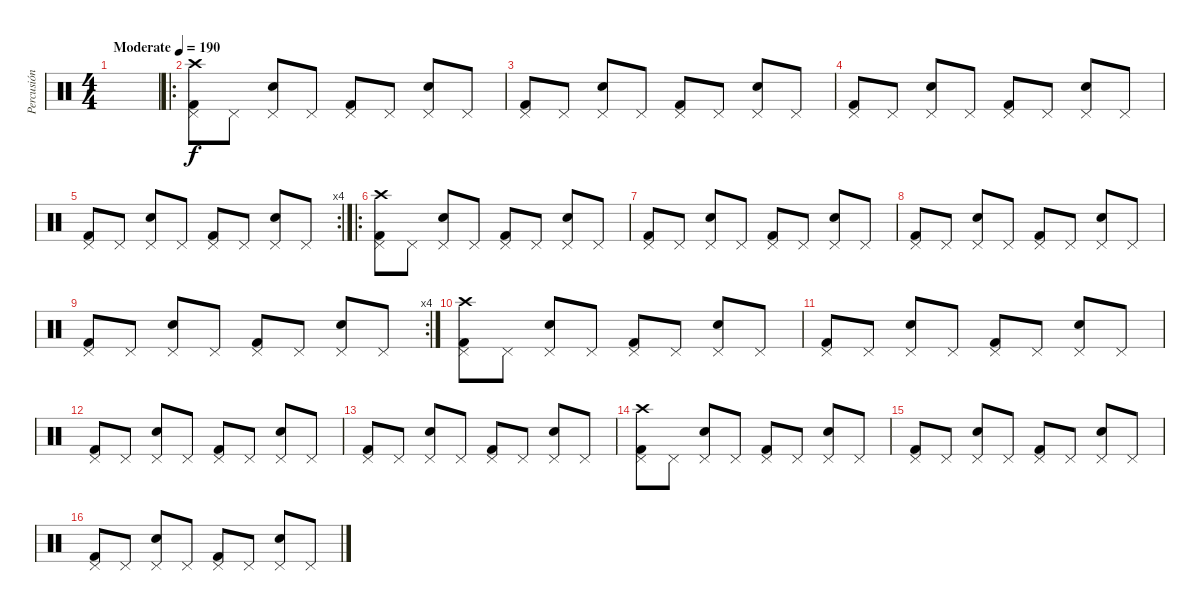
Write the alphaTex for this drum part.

\track ("Percusión" "Percusión") {instrument percussion}
\staff {score}
\articulation defaults
\ts (4 4)
\tempo (190 "Moderate")
\clef neutral
\ks c
|
\ro
("Pedal Hi-Hat (hit)" "Kick (hit) 2" "Crash high (hit)").8 "Pedal Hi-Hat (hit)".8 ("Pedal Hi-Hat (hit)" "Electric Snare (hit)").8 "Pedal Hi-Hat (hit)".8 ("Pedal Hi-Hat (hit)" "Kick (hit) 2").8 "Pedal Hi-Hat (hit)".8 ("Pedal Hi-Hat (hit)" "Electric Snare (hit)").8 "Pedal Hi-Hat (hit)".8 |
("Pedal Hi-Hat (hit)" "Kick (hit) 2").8 "Pedal Hi-Hat (hit)".8 ("Pedal Hi-Hat (hit)" "Electric Snare (hit)").8 "Pedal Hi-Hat (hit)".8 ("Pedal Hi-Hat (hit)" "Kick (hit) 2").8 "Pedal Hi-Hat (hit)".8 ("Pedal Hi-Hat (hit)" "Electric Snare (hit)").8 "Pedal Hi-Hat (hit)".8 |
("Pedal Hi-Hat (hit)" "Kick (hit) 2").8 "Pedal Hi-Hat (hit)".8 ("Pedal Hi-Hat (hit)" "Electric Snare (hit)").8 "Pedal Hi-Hat (hit)".8 ("Pedal Hi-Hat (hit)" "Kick (hit) 2").8 "Pedal Hi-Hat (hit)".8 ("Pedal Hi-Hat (hit)" "Electric Snare (hit)").8 "Pedal Hi-Hat (hit)".8 |
\rc 4
("Pedal Hi-Hat (hit)" "Kick (hit) 2").8 "Pedal Hi-Hat (hit)".8 ("Pedal Hi-Hat (hit)" "Electric Snare (hit)").8 "Pedal Hi-Hat (hit)".8 ("Pedal Hi-Hat (hit)" "Kick (hit) 2").8 "Pedal Hi-Hat (hit)".8 ("Pedal Hi-Hat (hit)" "Electric Snare (hit)").8 "Pedal Hi-Hat (hit)".8 |
\ro
("Pedal Hi-Hat (hit)" "Kick (hit) 2" "Crash high (hit)").8 "Pedal Hi-Hat (hit)".8 ("Pedal Hi-Hat (hit)" "Electric Snare (hit)").8 "Pedal Hi-Hat (hit)".8 ("Pedal Hi-Hat (hit)" "Kick (hit) 2").8 "Pedal Hi-Hat (hit)".8 ("Pedal Hi-Hat (hit)" "Electric Snare (hit)").8 "Pedal Hi-Hat (hit)".8 |
("Pedal Hi-Hat (hit)" "Kick (hit) 2").8 "Pedal Hi-Hat (hit)".8 ("Pedal Hi-Hat (hit)" "Electric Snare (hit)").8 "Pedal Hi-Hat (hit)".8 ("Pedal Hi-Hat (hit)" "Kick (hit) 2").8 "Pedal Hi-Hat (hit)".8 ("Pedal Hi-Hat (hit)" "Electric Snare (hit)").8 "Pedal Hi-Hat (hit)".8 |
("Pedal Hi-Hat (hit)" "Kick (hit) 2").8 "Pedal Hi-Hat (hit)".8 ("Pedal Hi-Hat (hit)" "Electric Snare (hit)").8 "Pedal Hi-Hat (hit)".8 ("Pedal Hi-Hat (hit)" "Kick (hit) 2").8 "Pedal Hi-Hat (hit)".8 ("Pedal Hi-Hat (hit)" "Electric Snare (hit)").8 "Pedal Hi-Hat (hit)".8 |
\rc 4
("Pedal Hi-Hat (hit)" "Kick (hit) 2").8 "Pedal Hi-Hat (hit)".8 ("Pedal Hi-Hat (hit)" "Electric Snare (hit)").8 "Pedal Hi-Hat (hit)".8 ("Pedal Hi-Hat (hit)" "Kick (hit) 2").8 "Pedal Hi-Hat (hit)".8 ("Pedal Hi-Hat (hit)" "Electric Snare (hit)").8 "Pedal Hi-Hat (hit)".8 |
("Pedal Hi-Hat (hit)" "Kick (hit) 2" "Crash high (hit)").8 "Pedal Hi-Hat (hit)".8 ("Pedal Hi-Hat (hit)" "Electric Snare (hit)").8 "Pedal Hi-Hat (hit)".8 ("Pedal Hi-Hat (hit)" "Kick (hit) 2").8 "Pedal Hi-Hat (hit)".8 ("Pedal Hi-Hat (hit)" "Electric Snare (hit)").8 "Pedal Hi-Hat (hit)".8 |
("Pedal Hi-Hat (hit)" "Kick (hit) 2").8 "Pedal Hi-Hat (hit)".8 ("Pedal Hi-Hat (hit)" "Electric Snare (hit)").8 "Pedal Hi-Hat (hit)".8 ("Pedal Hi-Hat (hit)" "Kick (hit) 2").8 "Pedal Hi-Hat (hit)".8 ("Pedal Hi-Hat (hit)" "Electric Snare (hit)").8 "Pedal Hi-Hat (hit)".8 |
("Pedal Hi-Hat (hit)" "Kick (hit) 2").8 "Pedal Hi-Hat (hit)".8 ("Pedal Hi-Hat (hit)" "Electric Snare (hit)").8 "Pedal Hi-Hat (hit)".8 ("Pedal Hi-Hat (hit)" "Kick (hit) 2").8 "Pedal Hi-Hat (hit)".8 ("Pedal Hi-Hat (hit)" "Electric Snare (hit)").8 "Pedal Hi-Hat (hit)".8 |
("Pedal Hi-Hat (hit)" "Kick (hit) 2").8 "Pedal Hi-Hat (hit)".8 ("Pedal Hi-Hat (hit)" "Electric Snare (hit)").8 "Pedal Hi-Hat (hit)".8 ("Pedal Hi-Hat (hit)" "Kick (hit) 2").8 "Pedal Hi-Hat (hit)".8 ("Pedal Hi-Hat (hit)" "Electric Snare (hit)").8 "Pedal Hi-Hat (hit)".8 |
("Pedal Hi-Hat (hit)" "Kick (hit) 2" "Crash high (hit)").8 "Pedal Hi-Hat (hit)".8 ("Pedal Hi-Hat (hit)" "Electric Snare (hit)").8 "Pedal Hi-Hat (hit)".8 ("Pedal Hi-Hat (hit)" "Kick (hit) 2").8 "Pedal Hi-Hat (hit)".8 ("Pedal Hi-Hat (hit)" "Electric Snare (hit)").8 "Pedal Hi-Hat (hit)".8 |
("Pedal Hi-Hat (hit)" "Kick (hit) 2").8 "Pedal Hi-Hat (hit)".8 ("Pedal Hi-Hat (hit)" "Electric Snare (hit)").8 "Pedal Hi-Hat (hit)".8 ("Pedal Hi-Hat (hit)" "Kick (hit) 2").8 "Pedal Hi-Hat (hit)".8 ("Pedal Hi-Hat (hit)" "Electric Snare (hit)").8 "Pedal Hi-Hat (hit)".8 |
("Pedal Hi-Hat (hit)" "Kick (hit) 2").8 "Pedal Hi-Hat (hit)".8 ("Pedal Hi-Hat (hit)" "Electric Snare (hit)").8 "Pedal Hi-Hat (hit)".8 ("Pedal Hi-Hat (hit)" "Kick (hit) 2").8 "Pedal Hi-Hat (hit)".8 ("Pedal Hi-Hat (hit)" "Electric Snare (hit)").8 "Pedal Hi-Hat (hit)".8
